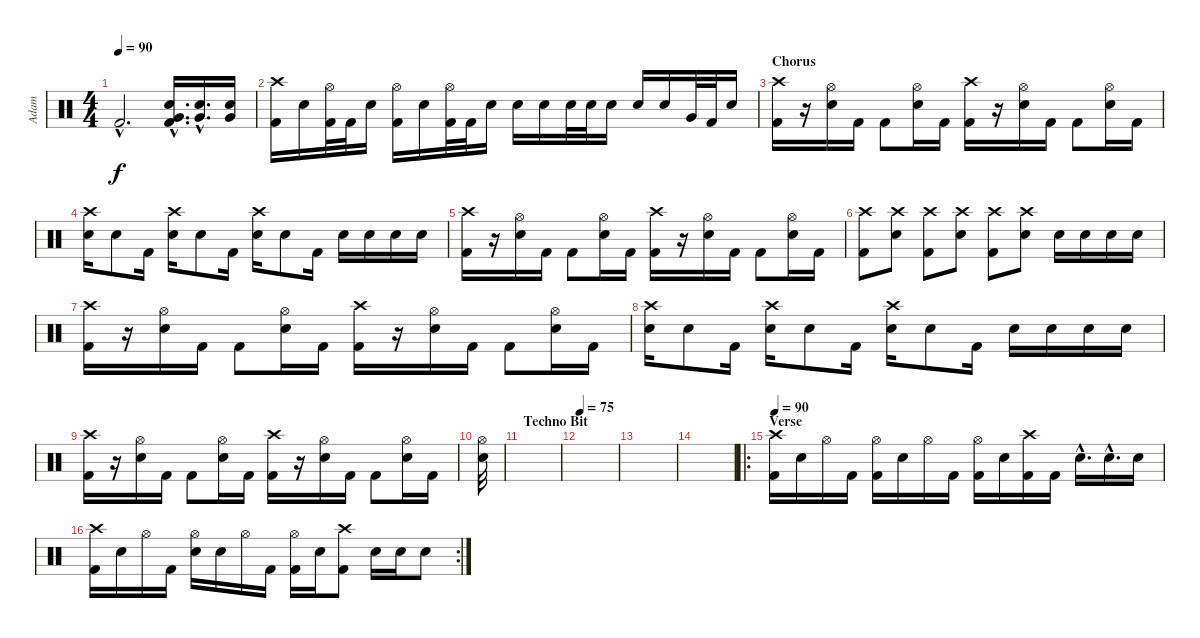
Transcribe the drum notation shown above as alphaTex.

\track ("Adam" "Adam") {instrument percussion}
\staff {score}
\articulation defaults
\ts (4 4)
\tempo 90
\clef neutral
\ks c "Kick (hit) 2"{hac}.2{d dy f}
("Very Low Tom (hit)"{hac} "Electric Snare (hit)"{hac} "Kick (hit) 2"{hac}).16{d} ("Very Low Tom (hit)"{hac} "Electric Snare (hit)"{hac}).16{d} ("Very Low Tom (hit)" "Electric Snare (hit)").16 |
("Crash high (hit)" "Kick (hit) 2").16 "Electric Snare (hit)".16 ("Hi-Hat (open)" "Kick (hit) 2").32 "Kick (hit) 2".32 "Electric Snare (hit)".16 ("Hi-Hat (open)" "Kick (hit) 2").16 "Electric Snare (hit)".16 ("Hi-Hat (open)" "Kick (hit) 2").32 "Kick (hit) 2".32 "Electric Snare (hit)".16 "Electric Snare (hit)".16 "Electric Snare (hit)".16 "Electric Snare (hit)".32 "Electric Snare (hit)".32 "Electric Snare (hit)".16 "Electric Snare (hit)".16 "Electric Snare (hit)".16 "Very Low Tom (hit)".32 "Kick (hit) 2".32 "Electric Snare (hit)".16 |
\section ("" "Chorus")
("Crash high (hit)" "Kick (hit) 2").16 r.16 ("Hi-Hat (open)" "Electric Snare (hit)").16 "Kick (hit) 2".16 "Kick (hit) 2".8 ("Hi-Hat (open)" "Electric Snare (hit)").16 "Kick (hit) 2".16 ("Crash high (hit)" "Kick (hit) 2").16 r.16 ("Hi-Hat (open)" "Electric Snare (hit)").16 "Kick (hit) 2".16 "Kick (hit) 2".8 ("Hi-Hat (open)" "Electric Snare (hit)").16 "Kick (hit) 2".16 |
("Crash high (hit)" "Electric Snare (hit)").16 "Electric Snare (hit)".8 "Kick (hit) 2".16 ("Crash high (hit)" "Electric Snare (hit)").16 "Electric Snare (hit)".8 "Kick (hit) 2".16 ("Crash high (hit)" "Electric Snare (hit)").16 "Electric Snare (hit)".8 "Kick (hit) 2".16 "Electric Snare (hit)".16 "Electric Snare (hit)".16 "Electric Snare (hit)".16 "Electric Snare (hit)".16 |
("Crash high (hit)" "Kick (hit) 2").16 r.16 ("Hi-Hat (open)" "Electric Snare (hit)").16 "Kick (hit) 2".16 "Kick (hit) 2".8 ("Hi-Hat (open)" "Electric Snare (hit)").16 "Kick (hit) 2".16 ("Crash high (hit)" "Kick (hit) 2").16 r.16 ("Hi-Hat (open)" "Electric Snare (hit)").16 "Kick (hit) 2".16 "Kick (hit) 2".8 ("Hi-Hat (open)" "Electric Snare (hit)").16 "Kick (hit) 2".16 |
("Crash high (hit)" "Kick (hit) 2").8 ("Crash high (hit)" "Electric Snare (hit)").8 ("Crash high (hit)" "Kick (hit) 2").8 ("Crash high (hit)" "Electric Snare (hit)").8 ("Crash high (hit)" "Kick (hit) 2").8 ("Crash high (hit)" "Electric Snare (hit)").8 "Electric Snare (hit)".16 "Electric Snare (hit)".16 "Electric Snare (hit)".16 "Electric Snare (hit)".16 |
("Crash high (hit)" "Kick (hit) 2").16 r.16 ("Hi-Hat (open)" "Electric Snare (hit)").16 "Kick (hit) 2".16 "Kick (hit) 2".8 ("Hi-Hat (open)" "Electric Snare (hit)").16 "Kick (hit) 2".16 ("Crash high (hit)" "Kick (hit) 2").16 r.16 ("Hi-Hat (open)" "Electric Snare (hit)").16 "Kick (hit) 2".16 "Kick (hit) 2".8 ("Hi-Hat (open)" "Electric Snare (hit)").16 "Kick (hit) 2".16 |
("Crash high (hit)" "Electric Snare (hit)").16 "Electric Snare (hit)".8 "Kick (hit) 2".16 ("Crash high (hit)" "Electric Snare (hit)").16 "Electric Snare (hit)".8 "Kick (hit) 2".16 ("Crash high (hit)" "Electric Snare (hit)").16 "Electric Snare (hit)".8 "Kick (hit) 2".16 "Electric Snare (hit)".16 "Electric Snare (hit)".16 "Electric Snare (hit)".16 "Electric Snare (hit)".16 |
("Crash high (hit)" "Kick (hit) 2").16 r.16 ("Hi-Hat (open)" "Electric Snare (hit)").16 "Kick (hit) 2".16 "Kick (hit) 2".8 ("Hi-Hat (open)" "Electric Snare (hit)").16 "Kick (hit) 2".16 ("Crash high (hit)" "Kick (hit) 2").16 r.16 ("Hi-Hat (open)" "Electric Snare (hit)").16 "Kick (hit) 2".16 "Kick (hit) 2".8 ("Hi-Hat (open)" "Electric Snare (hit)").16 "Kick (hit) 2".16 |
("Hi-Hat (open)" "Electric Snare (hit)").32 |
\section ("" "Techno Bit")
|
\tempo 75
|
|
|
\ro
\section ("" "Verse")
\tempo 90
("Crash high (hit)" "Kick (hit) 2").16 "Electric Snare (hit)".16 "Hi-Hat (open)".16 "Kick (hit) 2".16 ("Hi-Hat (open)" "Kick (hit) 2").16 "Electric Snare (hit)".16 "Hi-Hat (open)".16 "Kick (hit) 2".16 ("Hi-Hat (open)" "Kick (hit) 2").16 "Electric Snare (hit)".16 ("Crash high (hit)" "Kick (hit) 2").16 "Kick (hit) 2".16 "Electric Snare (hit)"{hac}.16{d} "Electric Snare (hit)"{hac}.16{d} "Electric Snare (hit)".16 |
\rc 2
("Crash high (hit)" "Kick (hit) 2").16 "Electric Snare (hit)".16 "Hi-Hat (open)".16 "Kick (hit) 2".16 ("Hi-Hat (open)" "Electric Snare (hit)").16 "Electric Snare (hit)".16 "Hi-Hat (open)".16 "Kick (hit) 2".16 ("Hi-Hat (open)" "Kick (hit) 2").16 "Electric Snare (hit)".16 ("Crash high (hit)" "Kick (hit) 2").8 "Electric Snare (hit)".16 "Electric Snare (hit)".16 "Electric Snare (hit)".8
